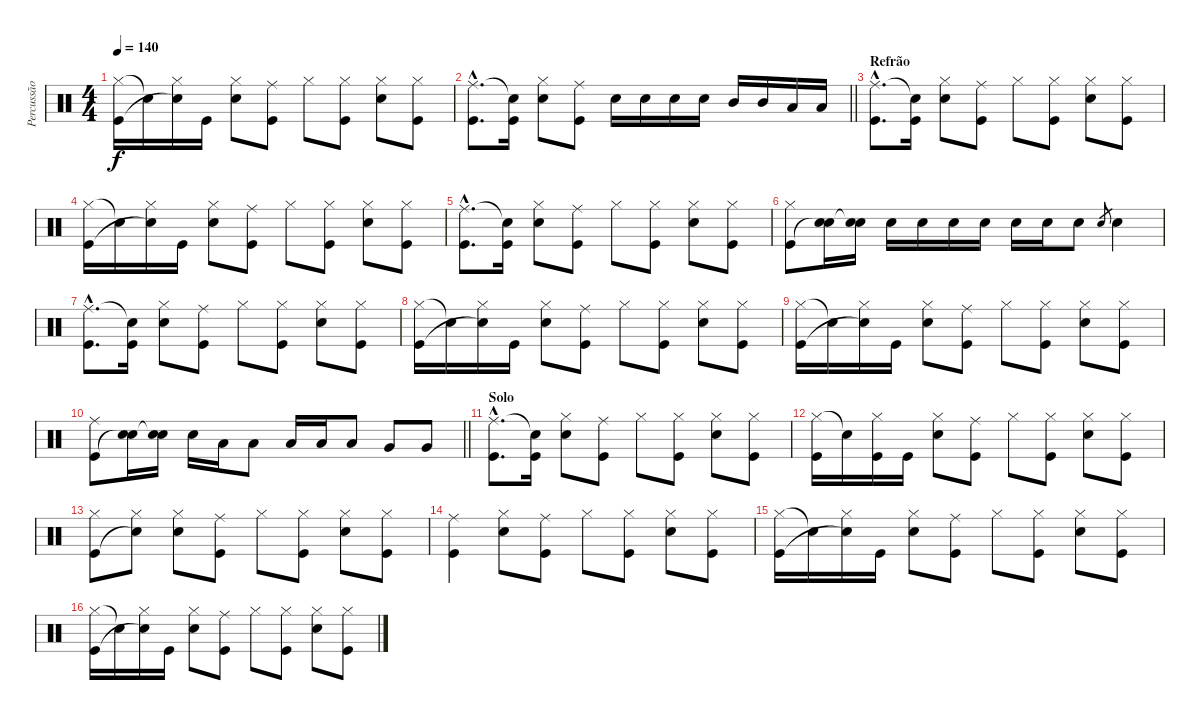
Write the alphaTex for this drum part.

\track ("Percussão" "Percussão") {instrument percussion}
\staff {score}
\articulation defaults
\ts (4 4)
\tempo 140
\clef neutral
\ks c
("Hi-Hat (closed)" "Kick (hit)").16{dy f} "Snare (hit)"{t}.16 ("Hi-Hat (closed)" "Snare (hit)"{t}).16 "Kick (hit)".16 ("Hi-Hat (closed)" "Snare (hit) 2").8 ("Ride (middle)" "Kick (hit)").8 "Hi-Hat (closed)".8 ("Hi-Hat (closed)" "Kick (hit)").8 ("Hi-Hat (closed)" "Snare (hit) 2").8 ("Hi-Hat (closed)" "Kick (hit)").8 |
\barLineRight lightlight
("Ride (middle)"{hac} "Kick (hit)"{hac}).8{d} ("Snare (hit)"{t} "Kick (hit)").16 ("Hi-Hat (closed)" "Snare (hit) 2").8 ("Ride (middle)" "Kick (hit)").8 "Snare (hit) 2".16 "Snare (hit) 2".16 "Snare (hit) 2".16 "Snare (hit) 2".16 "Mid Tom (hit)".16 "Mid Tom (hit)".16 "Low Tom (hit)".16 "Low Tom (hit)".16 |
\section ("" "Refrão")
("Ride (middle)"{hac} "Kick (hit)"{hac}).8{d} ("Snare (hit)"{t} "Kick (hit)").16 ("Hi-Hat (closed)" "Snare (hit) 2").8 ("Ride (middle)" "Kick (hit)").8 "Hi-Hat (closed)".8 ("Hi-Hat (closed)" "Kick (hit)").8 ("Hi-Hat (closed)" "Snare (hit) 2").8 ("Hi-Hat (closed)" "Kick (hit)").8 |
("Hi-Hat (closed)" "Kick (hit)").16 "Snare (hit)"{t}.16 ("Hi-Hat (closed)" "Snare (hit)"{t}).16 "Kick (hit)".16 ("Hi-Hat (closed)" "Snare (hit) 2").8 ("Ride (middle)" "Kick (hit)").8 "Hi-Hat (closed)".8 ("Hi-Hat (closed)" "Kick (hit)").8 ("Hi-Hat (closed)" "Snare (hit) 2").8 ("Hi-Hat (closed)" "Kick (hit)").8 |
("Ride (middle)"{hac} "Kick (hit)"{hac}).8{d} ("Snare (hit)"{t} "Kick (hit)").16 ("Hi-Hat (closed)" "Snare (hit) 2").8 ("Ride (middle)" "Kick (hit)").8 "Hi-Hat (closed)".8 ("Hi-Hat (closed)" "Kick (hit)").8 ("Hi-Hat (closed)" "Snare (hit) 2").8 ("Hi-Hat (closed)" "Kick (hit)").8 |
("Hi-Hat (closed)" "Kick (hit)").8 ("Snare (hit) 2" "Snare (hit)"{t}).16 ("Snare (hit) 2" "Snare (hit)"{t}).16 "Snare (hit) 2".16 "Snare (hit) 2".16 "Snare (hit) 2".16 "Snare (hit) 2".16 "Snare (hit) 2".16 "Snare (hit) 2".16 "Snare (hit) 2".8 "Snare (hit) 2".8{gr} "Snare (hit) 2".4 |
("Ride (middle)"{hac} "Kick (hit)"{hac}).8{d} ("Snare (hit)"{t} "Kick (hit)").16 ("Hi-Hat (closed)" "Snare (hit) 2").8 ("Ride (middle)" "Kick (hit)").8 "Hi-Hat (closed)".8 ("Hi-Hat (closed)" "Kick (hit)").8 ("Hi-Hat (closed)" "Snare (hit) 2").8 ("Hi-Hat (closed)" "Kick (hit)").8 |
("Hi-Hat (closed)" "Kick (hit)").16 "Snare (hit)"{t}.16 ("Hi-Hat (closed)" "Snare (hit)"{t}).16 "Kick (hit)".16 ("Hi-Hat (closed)" "Snare (hit) 2").8 ("Ride (middle)" "Kick (hit)").8 "Hi-Hat (closed)".8 ("Hi-Hat (closed)" "Kick (hit)").8 ("Hi-Hat (closed)" "Snare (hit) 2").8 ("Hi-Hat (closed)" "Kick (hit)").8 |
("Hi-Hat (closed)" "Kick (hit)").16 "Snare (hit)"{t}.16 ("Hi-Hat (closed)" "Snare (hit)"{t}).16 "Kick (hit)".16 ("Hi-Hat (closed)" "Snare (hit) 2").8 ("Ride (middle)" "Kick (hit)").8 "Hi-Hat (closed)".8 ("Hi-Hat (closed)" "Kick (hit)").8 ("Hi-Hat (closed)" "Snare (hit) 2").8 ("Hi-Hat (closed)" "Kick (hit)").8 |
\barLineRight lightlight
("Ride (middle)" "Kick (hit)").8 ("Snare (hit) 2" "Snare (hit)"{t}).16 ("Snare (hit) 2" "Snare (hit)"{t}).16 "Snare (hit) 2".16 "Low Tom (hit)".16 "Low Tom (hit)".8 "Low Tom (hit)".16 "Low Tom (hit)".16 "Low Tom (hit)".8 "Very Low Tom (hit)".8 "Very Low Tom (hit)".8 |
\section ("" "Solo")
("Ride (middle)"{hac} "Kick (hit)"{hac}).8{d} ("Snare (hit)"{t} "Kick (hit)").16 ("Hi-Hat (closed)" "Snare (hit) 2").8 ("Ride (middle)" "Kick (hit)").8 "Hi-Hat (closed)".8 ("Hi-Hat (closed)" "Kick (hit)").8 ("Hi-Hat (closed)" "Snare (hit) 2").8 ("Hi-Hat (closed)" "Kick (hit)").8 |
("Hi-Hat (closed)" "Kick (hit)").16 "Snare (hit)"{t}.16 ("Hi-Hat (closed)" "Kick (hit)").16 "Kick (hit)".16 ("Hi-Hat (closed)" "Snare (hit) 2").8 ("Ride (middle)" "Kick (hit)").8 "Hi-Hat (closed)".8 ("Hi-Hat (closed)" "Kick (hit)").8 ("Hi-Hat (closed)" "Snare (hit) 2").8 ("Hi-Hat (closed)" "Kick (hit)").8 |
("Hi-Hat (closed)" "Kick (hit)").8 ("Hi-Hat (closed)" "Snare (hit)"{t}).8 ("Hi-Hat (closed)" "Snare (hit) 2").8 ("Ride (middle)" "Kick (hit)").8 "Hi-Hat (closed)".8 ("Hi-Hat (closed)" "Kick (hit)").8 ("Hi-Hat (closed)" "Snare (hit) 2").8 ("Hi-Hat (closed)" "Kick (hit)").8 |
("Ride (middle)" "Kick (hit)").4 ("Hi-Hat (closed)" "Snare (hit) 2").8 ("Ride (middle)" "Kick (hit)").8 "Hi-Hat (closed)".8 ("Hi-Hat (closed)" "Kick (hit)").8 ("Hi-Hat (closed)" "Snare (hit) 2").8 ("Hi-Hat (closed)" "Kick (hit)").8 |
("Hi-Hat (closed)" "Kick (hit)").16 "Snare (hit)"{t}.16 ("Hi-Hat (closed)" "Snare (hit)"{t}).16 "Kick (hit)".16 ("Hi-Hat (closed)" "Snare (hit) 2").8 ("Ride (middle)" "Kick (hit)").8 "Hi-Hat (closed)".8 ("Hi-Hat (closed)" "Kick (hit)").8 ("Hi-Hat (closed)" "Snare (hit) 2").8 ("Hi-Hat (closed)" "Kick (hit)").8 |
("Hi-Hat (closed)" "Kick (hit)").16 "Snare (hit)"{t}.16 ("Hi-Hat (closed)" "Snare (hit)"{t}).16 "Kick (hit)".16 ("Hi-Hat (closed)" "Snare (hit) 2").8 ("Ride (middle)" "Kick (hit)").8 "Hi-Hat (closed)".8 ("Hi-Hat (closed)" "Kick (hit)").8 ("Hi-Hat (closed)" "Snare (hit) 2").8 ("Hi-Hat (closed)" "Kick (hit)").8
